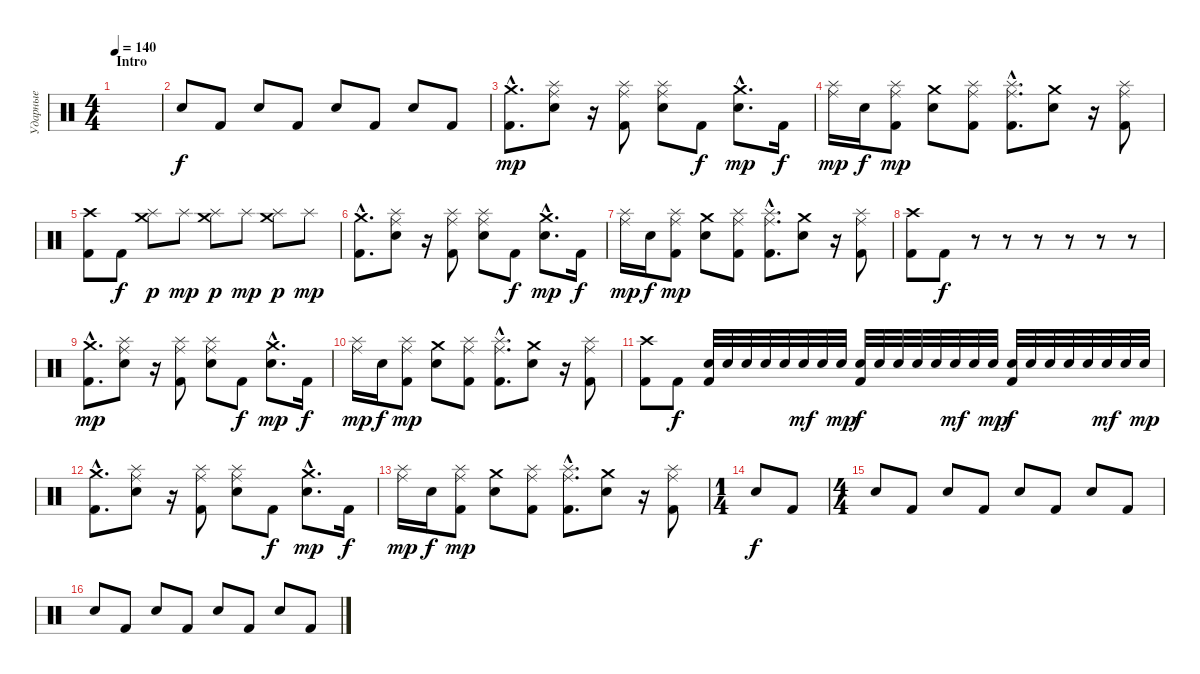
\track ("Ударные" "Ударные") {instrument percussion}
\staff {score}
\articulation defaults
\ts (4 4)
\section ("" "Intro")
\tempo 140
\clef neutral
\ks c
|
"Snare (hit) 2".8 "Kick (hit) 2".8 "Snare (hit) 2".8 "Kick (hit) 2".8 "Snare (hit) 2".8 "Kick (hit) 2".8 "Snare (hit) 2".8 "Kick (hit) 2".8 |
("Crash medium (hit)"{hac} "Kick (hit) 2"{hac}).8{d dy mp} ("Splash (hit)" "Ride (middle)" "Snare (hit) 2").8 r.16 ("Splash (hit)" "Ride (middle)" "Kick (hit) 2").8 ("Splash (hit)" "Ride (middle)" "Snare (hit) 2").8 "Kick (hit) 2".8{dy f} ("Crash medium (hit)"{hac} "Snare (hit) 2"{hac}).8{d dy mp} "Kick (hit) 2".16{dy f} |
("Splash (hit)" "Ride (middle)").16{dy mp} "Snare (hit) 2".16{dy f} ("Splash (hit)" "Ride (middle)" "Kick (hit) 2").8{dy mp} ("Crash medium (hit)" "Snare (hit) 2").8 ("Splash (hit)" "Ride (middle)" "Kick (hit) 2").8 ("Splash (hit)"{hac} "Ride (middle)"{hac} "Kick (hit) 2"{hac}).8{d} ("Crash medium (hit)" "Snare (hit) 2").8 r.16 ("Splash (hit)" "Ride (middle)" "Kick (hit) 2").8 |
("Crash high (hit)" "Kick (hit) 2").8 "Kick (hit) 2".8{dy f} ("Splash (hit)" "Crash medium (hit)").8{dy p} "Splash (hit)".8{dy mp} ("Splash (hit)" "Crash medium (hit)").8{dy p} "Splash (hit)".8{dy mp} ("Splash (hit)" "Crash medium (hit)").8{dy p} "Splash (hit)".8{dy mp} |
("Crash medium (hit)"{hac} "Kick (hit) 2"{hac}).8{d} ("Splash (hit)" "Ride (middle)" "Snare (hit) 2").8 r.16 ("Splash (hit)" "Ride (middle)" "Kick (hit) 2").8 ("Splash (hit)" "Ride (middle)" "Snare (hit) 2").8 "Kick (hit) 2".8{dy f} ("Crash medium (hit)"{hac} "Snare (hit) 2"{hac}).8{d dy mp} "Kick (hit) 2".16{dy f} |
("Splash (hit)" "Ride (middle)").16{dy mp} "Snare (hit) 2".16{dy f} ("Splash (hit)" "Ride (middle)" "Kick (hit) 2").8{dy mp} ("Crash medium (hit)" "Snare (hit) 2").8 ("Splash (hit)" "Ride (middle)" "Kick (hit) 2").8 ("Splash (hit)"{hac} "Ride (middle)"{hac} "Kick (hit) 2"{hac}).8{d} ("Crash medium (hit)" "Snare (hit) 2").8 r.16 ("Splash (hit)" "Ride (middle)" "Kick (hit) 2").8 |
("Crash high (hit)" "Kick (hit) 2").8 "Kick (hit) 2".8{dy f} r.8 r.8 r.8 r.8 r.8 r.8 |
("Crash medium (hit)"{hac} "Kick (hit) 2"{hac}).8{d dy mp} ("Splash (hit)" "Ride (middle)" "Snare (hit) 2").8 r.16 ("Splash (hit)" "Ride (middle)" "Kick (hit) 2").8 ("Splash (hit)" "Ride (middle)" "Snare (hit) 2").8 "Kick (hit) 2".8{dy f} ("Crash medium (hit)"{hac} "Snare (hit) 2"{hac}).8{d dy mp} "Kick (hit) 2".16{dy f} |
("Splash (hit)" "Ride (middle)").16{dy mp} "Snare (hit) 2".16{dy f} ("Splash (hit)" "Ride (middle)" "Kick (hit) 2").8{dy mp} ("Crash medium (hit)" "Snare (hit) 2").8 ("Splash (hit)" "Ride (middle)" "Kick (hit) 2").8 ("Splash (hit)"{hac} "Ride (middle)"{hac} "Kick (hit) 2"{hac}).8{d} ("Crash medium (hit)" "Snare (hit) 2").8 r.16 ("Splash (hit)" "Ride (middle)" "Kick (hit) 2").8 |
("Crash high (hit)" "Kick (hit) 2").8 "Kick (hit) 2".8{dy f} ("Snare (hit) 2" "Kick (hit) 2").32 "Snare (hit) 2".32 "Snare (hit) 2".32 "Snare (hit) 2".32 "Snare (hit) 2".32 "Snare (hit) 2".32{dy mf} "Snare (hit) 2".32 "Snare (hit) 2".32{dy mp} ("Snare (hit) 2" "Kick (hit) 2").32{dy f} "Snare (hit) 2".32 "Snare (hit) 2".32 "Snare (hit) 2".32 "Snare (hit) 2".32 "Snare (hit) 2".32{dy mf} "Snare (hit) 2".32 "Snare (hit) 2".32{dy mp} ("Snare (hit) 2" "Kick (hit) 2").32{dy f} "Snare (hit) 2".32 "Snare (hit) 2".32 "Snare (hit) 2".32 "Snare (hit) 2".32 "Snare (hit) 2".32{dy mf} "Snare (hit) 2".32 "Snare (hit) 2".32{dy mp} |
("Crash medium (hit)"{hac} "Kick (hit) 2"{hac}).8{d} ("Splash (hit)" "Ride (middle)" "Snare (hit) 2").8 r.16 ("Splash (hit)" "Ride (middle)" "Kick (hit) 2").8 ("Splash (hit)" "Ride (middle)" "Snare (hit) 2").8 "Kick (hit) 2".8{dy f} ("Crash medium (hit)"{hac} "Snare (hit) 2"{hac}).8{d dy mp} "Kick (hit) 2".16{dy f} |
("Splash (hit)" "Ride (middle)").16{dy mp} "Snare (hit) 2".16{dy f} ("Splash (hit)" "Ride (middle)" "Kick (hit) 2").8{dy mp} ("Crash medium (hit)" "Snare (hit) 2").8 ("Splash (hit)" "Ride (middle)" "Kick (hit) 2").8 ("Splash (hit)"{hac} "Ride (middle)"{hac} "Kick (hit) 2"{hac}).8{d} ("Crash medium (hit)" "Snare (hit) 2").8 r.16 ("Splash (hit)" "Ride (middle)" "Kick (hit) 2").8 |
\ts (1 4)
"Snare (hit) 2".8{dy f} "Kick (hit) 2".8 |
\ts (4 4)
"Snare (hit) 2".8 "Kick (hit) 2".8 "Snare (hit) 2".8 "Kick (hit) 2".8 "Snare (hit) 2".8 "Kick (hit) 2".8 "Snare (hit) 2".8 "Kick (hit) 2".8 |
"Snare (hit) 2".8 "Kick (hit) 2".8 "Snare (hit) 2".8 "Kick (hit) 2".8 "Snare (hit) 2".8 "Kick (hit) 2".8 "Snare (hit) 2".8 "Kick (hit) 2".8
